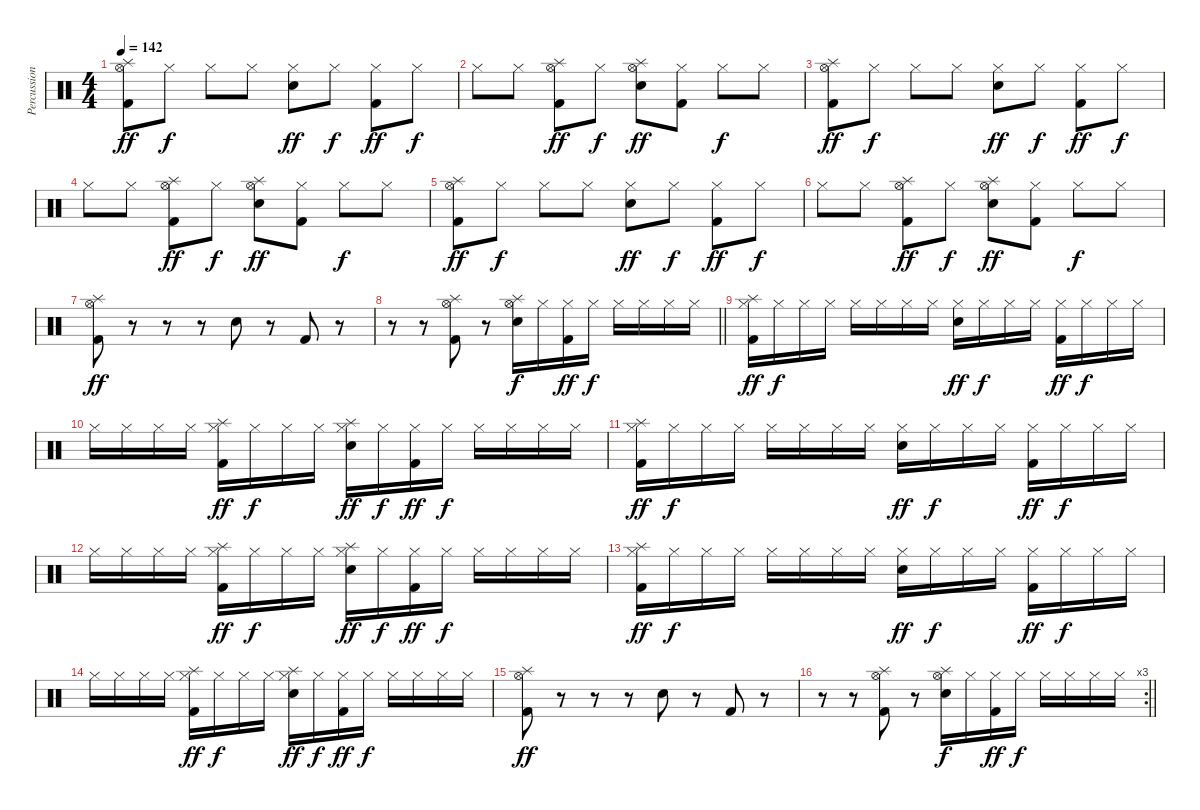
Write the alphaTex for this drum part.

\track ("Percussion" "Percussion") {instrument percussion}
\staff {score}
\articulation defaults
\ts (4 4)
\tempo 142
\clef neutral
\ks c
("Hi-Hat (open)" "Splash (hit)" "Kick (hit) 2").8{dy ff} "Hi-Hat (closed)".8{dy f} "Hi-Hat (closed)".8 "Hi-Hat (closed)".8 ("Hi-Hat (closed)" "Snare (hit) 2").8{dy ff} "Hi-Hat (closed)".8{dy f} ("Hi-Hat (closed)" "Kick (hit) 2").8{dy ff} "Hi-Hat (closed)".8{dy f} |
"Hi-Hat (closed)".8 "Hi-Hat (closed)".8 ("Hi-Hat (open)" "Splash (hit)" "Kick (hit) 2").8{dy ff} "Hi-Hat (closed)".8{dy f} ("Hi-Hat (open)" "Splash (hit)" "Snare (hit) 2").8{dy ff} ("Hi-Hat (closed)" "Kick (hit) 2").8 "Hi-Hat (closed)".8{dy f} "Hi-Hat (closed)".8 |
("Hi-Hat (open)" "Splash (hit)" "Kick (hit) 2").8{dy ff} "Hi-Hat (closed)".8{dy f} "Hi-Hat (closed)".8 "Hi-Hat (closed)".8 ("Hi-Hat (closed)" "Snare (hit) 2").8{dy ff} "Hi-Hat (closed)".8{dy f} ("Hi-Hat (closed)" "Kick (hit) 2").8{dy ff} "Hi-Hat (closed)".8{dy f} |
"Hi-Hat (closed)".8 "Hi-Hat (closed)".8 ("Hi-Hat (open)" "Splash (hit)" "Kick (hit) 2").8{dy ff} "Hi-Hat (closed)".8{dy f} ("Hi-Hat (open)" "Splash (hit)" "Snare (hit) 2").8{dy ff} ("Hi-Hat (closed)" "Kick (hit) 2").8 "Hi-Hat (closed)".8{dy f} "Hi-Hat (closed)".8 |
("Hi-Hat (open)" "Splash (hit)" "Kick (hit) 2").8{dy ff} "Hi-Hat (closed)".8{dy f} "Hi-Hat (closed)".8 "Hi-Hat (closed)".8 ("Hi-Hat (closed)" "Snare (hit) 2").8{dy ff} "Hi-Hat (closed)".8{dy f} ("Hi-Hat (closed)" "Kick (hit) 2").8{dy ff} "Hi-Hat (closed)".8{dy f} |
"Hi-Hat (closed)".8 "Hi-Hat (closed)".8 ("Hi-Hat (open)" "Splash (hit)" "Kick (hit) 2").8{dy ff} "Hi-Hat (closed)".8{dy f} ("Hi-Hat (open)" "Splash (hit)" "Snare (hit) 2").8{dy ff} ("Hi-Hat (closed)" "Kick (hit) 2").8 "Hi-Hat (closed)".8{dy f} "Hi-Hat (closed)".8 |
("Hi-Hat (open)" "Splash (hit)" "Kick (hit) 2").8{dy ff} r.8 r.8 r.8 "Snare (hit) 2".8 r.8 "Kick (hit) 2".8 r.8 |
\barLineRight lightlight
r.8 r.8 ("Hi-Hat (open)" "Splash (hit)" "Kick (hit) 2").8 r.8 ("Hi-Hat (open)" "Splash (hit)" "Snare (hit) 2").16{dy f} "Hi-Hat (closed)".16 ("Hi-Hat (closed)" "Kick (hit) 2").16{dy ff} "Hi-Hat (closed)".16{dy f} "Hi-Hat (closed)".16 "Hi-Hat (closed)".16 "Hi-Hat (closed)".16 "Hi-Hat (closed)".16 |
("Hi-Hat (closed)" "Splash (hit)" "Kick (hit) 2").16{dy ff} "Hi-Hat (closed)".16{dy f} "Hi-Hat (closed)".16 "Hi-Hat (closed)".16 "Hi-Hat (closed)".16 "Hi-Hat (closed)".16 "Hi-Hat (closed)".16 "Hi-Hat (closed)".16 ("Hi-Hat (closed)" "Snare (hit) 2").16{dy ff} "Hi-Hat (closed)".16{dy f} "Hi-Hat (closed)".16 "Hi-Hat (closed)".16 ("Hi-Hat (closed)" "Kick (hit) 2").16{dy ff} "Hi-Hat (closed)".16{dy f} "Hi-Hat (closed)".16 "Hi-Hat (closed)".16 |
"Hi-Hat (closed)".16 "Hi-Hat (closed)".16 "Hi-Hat (closed)".16 "Hi-Hat (closed)".16 ("Hi-Hat (closed)" "Splash (hit)" "Kick (hit) 2").16{dy ff} "Hi-Hat (closed)".16{dy f} "Hi-Hat (closed)".16 "Hi-Hat (closed)".16 ("Hi-Hat (closed)" "Splash (hit)" "Snare (hit) 2").16{dy ff} "Hi-Hat (closed)".16{dy f} ("Hi-Hat (closed)" "Kick (hit) 2").16{dy ff} "Hi-Hat (closed)".16{dy f} "Hi-Hat (closed)".16 "Hi-Hat (closed)".16 "Hi-Hat (closed)".16 "Hi-Hat (closed)".16 |
("Hi-Hat (closed)" "Splash (hit)" "Kick (hit) 2").16{dy ff} "Hi-Hat (closed)".16{dy f} "Hi-Hat (closed)".16 "Hi-Hat (closed)".16 "Hi-Hat (closed)".16 "Hi-Hat (closed)".16 "Hi-Hat (closed)".16 "Hi-Hat (closed)".16 ("Hi-Hat (closed)" "Snare (hit) 2").16{dy ff} "Hi-Hat (closed)".16{dy f} "Hi-Hat (closed)".16 "Hi-Hat (closed)".16 ("Hi-Hat (closed)" "Kick (hit) 2").16{dy ff} "Hi-Hat (closed)".16{dy f} "Hi-Hat (closed)".16 "Hi-Hat (closed)".16 |
"Hi-Hat (closed)".16 "Hi-Hat (closed)".16 "Hi-Hat (closed)".16 "Hi-Hat (closed)".16 ("Hi-Hat (closed)" "Splash (hit)" "Kick (hit) 2").16{dy ff} "Hi-Hat (closed)".16{dy f} "Hi-Hat (closed)".16 "Hi-Hat (closed)".16 ("Hi-Hat (closed)" "Splash (hit)" "Snare (hit) 2").16{dy ff} "Hi-Hat (closed)".16{dy f} ("Hi-Hat (closed)" "Kick (hit) 2").16{dy ff} "Hi-Hat (closed)".16{dy f} "Hi-Hat (closed)".16 "Hi-Hat (closed)".16 "Hi-Hat (closed)".16 "Hi-Hat (closed)".16 |
("Hi-Hat (closed)" "Splash (hit)" "Kick (hit) 2").16{dy ff} "Hi-Hat (closed)".16{dy f} "Hi-Hat (closed)".16 "Hi-Hat (closed)".16 "Hi-Hat (closed)".16 "Hi-Hat (closed)".16 "Hi-Hat (closed)".16 "Hi-Hat (closed)".16 ("Hi-Hat (closed)" "Snare (hit) 2").16{dy ff} "Hi-Hat (closed)".16{dy f} "Hi-Hat (closed)".16 "Hi-Hat (closed)".16 ("Hi-Hat (closed)" "Kick (hit) 2").16{dy ff} "Hi-Hat (closed)".16{dy f} "Hi-Hat (closed)".16 "Hi-Hat (closed)".16 |
"Hi-Hat (closed)".16 "Hi-Hat (closed)".16 "Hi-Hat (closed)".16 "Hi-Hat (closed)".16 ("Hi-Hat (closed)" "Splash (hit)" "Kick (hit) 2").16{dy ff} "Hi-Hat (closed)".16{dy f} "Hi-Hat (closed)".16 "Hi-Hat (closed)".16 ("Hi-Hat (closed)" "Splash (hit)" "Snare (hit) 2").16{dy ff} "Hi-Hat (closed)".16{dy f} ("Hi-Hat (closed)" "Kick (hit) 2").16{dy ff} "Hi-Hat (closed)".16{dy f} "Hi-Hat (closed)".16 "Hi-Hat (closed)".16 "Hi-Hat (closed)".16 "Hi-Hat (closed)".16 |
("Hi-Hat (open)" "Splash (hit)" "Kick (hit) 2").8{dy ff} r.8 r.8 r.8 "Snare (hit) 2".8 r.8 "Kick (hit) 2".8 r.8 |
\rc 3
\barLineRight lightlight
r.8 r.8 ("Hi-Hat (open)" "Splash (hit)" "Kick (hit) 2").8 r.8 ("Hi-Hat (open)" "Splash (hit)" "Snare (hit) 2").16{dy f} "Hi-Hat (closed)".16 ("Hi-Hat (closed)" "Kick (hit) 2").16{dy ff} "Hi-Hat (closed)".16{dy f} "Hi-Hat (closed)".16 "Hi-Hat (closed)".16 "Hi-Hat (closed)".16 "Hi-Hat (closed)".16
